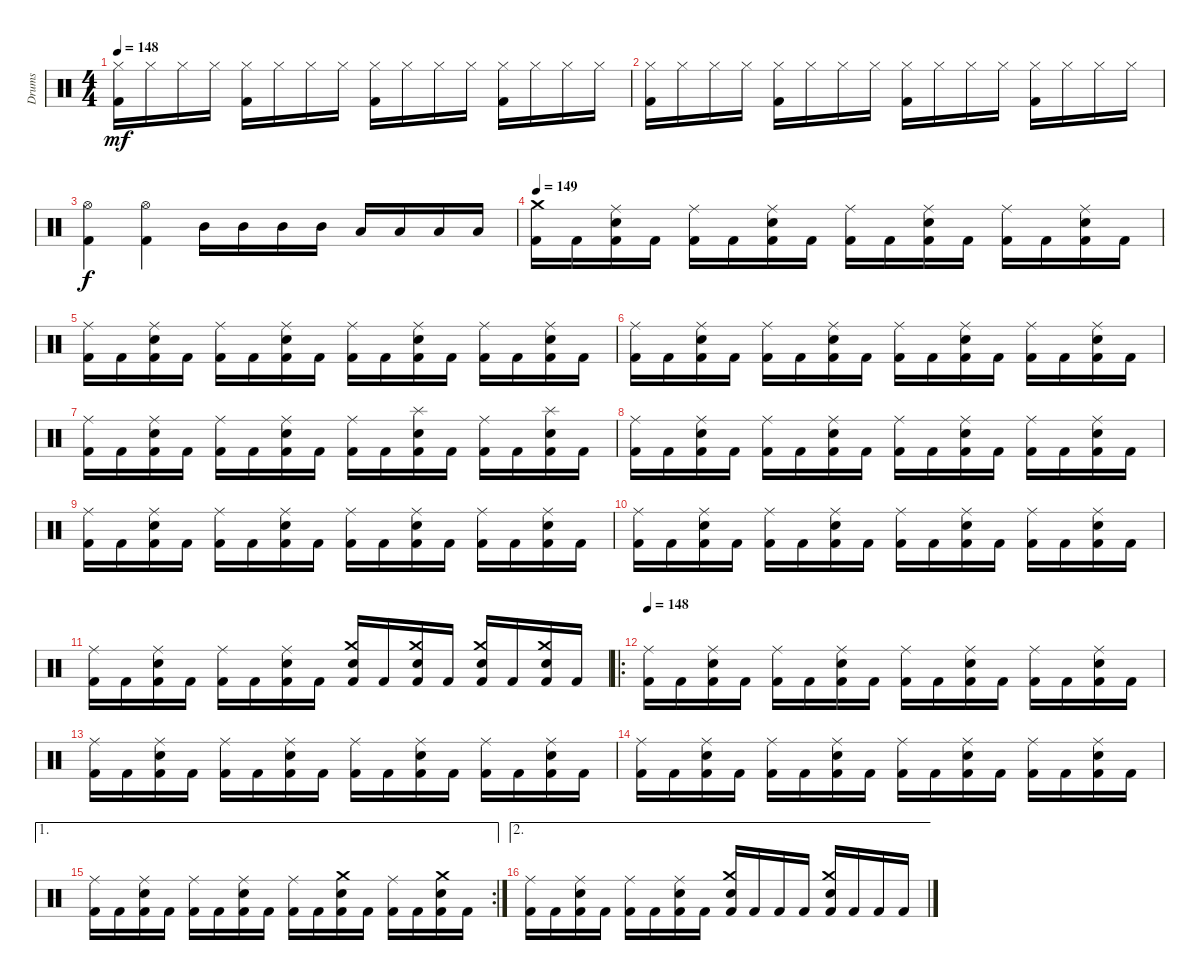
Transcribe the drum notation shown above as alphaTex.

\track ("Drums" "Drums") {instrument percussion}
\staff {score}
\articulation defaults
\ts (4 4)
\tempo 148
\clef neutral
\ks c
("Hi-Hat (closed)" "Kick (hit) 2").16{dy mf} "Hi-Hat (closed)".16 "Hi-Hat (closed)".16 "Hi-Hat (closed)".16 ("Hi-Hat (closed)" "Kick (hit) 2").16 "Hi-Hat (closed)".16 "Hi-Hat (closed)".16 "Hi-Hat (closed)".16 ("Hi-Hat (closed)" "Kick (hit) 2").16 "Hi-Hat (closed)".16 "Hi-Hat (closed)".16 "Hi-Hat (closed)".16 ("Hi-Hat (closed)" "Kick (hit) 2").16 "Hi-Hat (closed)".16 "Hi-Hat (closed)".16 "Hi-Hat (closed)".16 |
("Hi-Hat (closed)" "Kick (hit) 2").16 "Hi-Hat (closed)".16 "Hi-Hat (closed)".16 "Hi-Hat (closed)".16 ("Hi-Hat (closed)" "Kick (hit) 2").16 "Hi-Hat (closed)".16 "Hi-Hat (closed)".16 "Hi-Hat (closed)".16 ("Hi-Hat (closed)" "Kick (hit) 2").16 "Hi-Hat (closed)".16 "Hi-Hat (closed)".16 "Hi-Hat (closed)".16 ("Hi-Hat (closed)" "Kick (hit) 2").16 "Hi-Hat (closed)".16 "Hi-Hat (closed)".16 "Hi-Hat (closed)".16 |
("Hi-Hat (open)" "Kick (hit) 2").4{dy f} ("Hi-Hat (open)" "Kick (hit) 2").4 "Mid Tom (hit)".16 "Mid Tom (hit)".16 "Mid Tom (hit)".16 "Mid Tom (hit)".16 "Low Tom (hit)".16 "Low Tom (hit)".16 "Low Tom (hit)".16 "Low Tom (hit)".16 |
\tempo 149
("Crash medium (hit)" "Kick (hit) 2").16 "Kick (hit) 2".16 ("Ride (middle)" "Snare (hit) 2" "Kick (hit) 2").16 "Kick (hit) 2".16 ("Ride (middle)" "Kick (hit) 2").16 "Kick (hit) 2".16 ("Ride (middle)" "Snare (hit) 2" "Kick (hit) 2").16 "Kick (hit) 2".16 ("Ride (middle)" "Kick (hit) 2").16 "Kick (hit) 2".16 ("Ride (middle)" "Snare (hit) 2" "Kick (hit) 2").16 "Kick (hit) 2".16 ("Ride (middle)" "Kick (hit) 2").16 "Kick (hit) 2".16 ("Ride (middle)" "Snare (hit) 2" "Kick (hit) 2").16 "Kick (hit) 2".16 |
("Ride (middle)" "Kick (hit) 2").16 "Kick (hit) 2".16 ("Ride (middle)" "Snare (hit) 2" "Kick (hit) 2").16 "Kick (hit) 2".16 ("Ride (middle)" "Kick (hit) 2").16 "Kick (hit) 2".16 ("Ride (middle)" "Snare (hit) 2" "Kick (hit) 2").16 "Kick (hit) 2".16 ("Ride (middle)" "Kick (hit) 2").16 "Kick (hit) 2".16 ("Ride (middle)" "Snare (hit) 2" "Kick (hit) 2").16 "Kick (hit) 2".16 ("Ride (middle)" "Kick (hit) 2").16 "Kick (hit) 2".16 ("Ride (middle)" "Snare (hit) 2" "Kick (hit) 2").16 "Kick (hit) 2".16 |
("Ride (middle)" "Kick (hit) 2").16 "Kick (hit) 2".16 ("Ride (middle)" "Snare (hit) 2" "Kick (hit) 2").16 "Kick (hit) 2".16 ("Ride (middle)" "Kick (hit) 2").16 "Kick (hit) 2".16 ("Ride (middle)" "Snare (hit) 2" "Kick (hit) 2").16 "Kick (hit) 2".16 ("Ride (middle)" "Kick (hit) 2").16 "Kick (hit) 2".16 ("Ride (middle)" "Snare (hit) 2" "Kick (hit) 2").16 "Kick (hit) 2".16 ("Ride (middle)" "Kick (hit) 2").16 "Kick (hit) 2".16 ("Ride (middle)" "Snare (hit) 2" "Kick (hit) 2").16 "Kick (hit) 2".16 |
("Ride (middle)" "Kick (hit) 2").16 "Kick (hit) 2".16 ("Ride (middle)" "Snare (hit) 2" "Kick (hit) 2").16 "Kick (hit) 2".16 ("Ride (middle)" "Kick (hit) 2").16 "Kick (hit) 2".16 ("Ride (middle)" "Snare (hit) 2" "Kick (hit) 2").16 "Kick (hit) 2".16 ("Ride (middle)" "Kick (hit) 2").16 "Kick (hit) 2".16 ("Splash (hit)" "Snare (hit) 2" "Kick (hit) 2").16 "Kick (hit) 2".16 ("Ride (middle)" "Kick (hit) 2").16 "Kick (hit) 2".16 ("Splash (hit)" "Snare (hit) 2" "Kick (hit) 2").16 "Kick (hit) 2".16 |
("Ride (middle)" "Kick (hit) 2").16 "Kick (hit) 2".16 ("Ride (middle)" "Snare (hit) 2" "Kick (hit) 2").16 "Kick (hit) 2".16 ("Ride (middle)" "Kick (hit) 2").16 "Kick (hit) 2".16 ("Ride (middle)" "Snare (hit) 2" "Kick (hit) 2").16 "Kick (hit) 2".16 ("Ride (middle)" "Kick (hit) 2").16 "Kick (hit) 2".16 ("Ride (middle)" "Snare (hit) 2" "Kick (hit) 2").16 "Kick (hit) 2".16 ("Ride (middle)" "Kick (hit) 2").16 "Kick (hit) 2".16 ("Ride (middle)" "Snare (hit) 2" "Kick (hit) 2").16 "Kick (hit) 2".16 |
("Ride (middle)" "Kick (hit) 2").16 "Kick (hit) 2".16 ("Ride (middle)" "Snare (hit) 2" "Kick (hit) 2").16 "Kick (hit) 2".16 ("Ride (middle)" "Kick (hit) 2").16 "Kick (hit) 2".16 ("Ride (middle)" "Snare (hit) 2" "Kick (hit) 2").16 "Kick (hit) 2".16 ("Ride (middle)" "Kick (hit) 2").16 "Kick (hit) 2".16 ("Ride (middle)" "Snare (hit) 2" "Kick (hit) 2").16 "Kick (hit) 2".16 ("Ride (middle)" "Kick (hit) 2").16 "Kick (hit) 2".16 ("Ride (middle)" "Snare (hit) 2" "Kick (hit) 2").16 "Kick (hit) 2".16 |
("Ride (middle)" "Kick (hit) 2").16 "Kick (hit) 2".16 ("Ride (middle)" "Snare (hit) 2" "Kick (hit) 2").16 "Kick (hit) 2".16 ("Ride (middle)" "Kick (hit) 2").16 "Kick (hit) 2".16 ("Ride (middle)" "Snare (hit) 2" "Kick (hit) 2").16 "Kick (hit) 2".16 ("Ride (middle)" "Kick (hit) 2").16 "Kick (hit) 2".16 ("Ride (middle)" "Snare (hit) 2" "Kick (hit) 2").16 "Kick (hit) 2".16 ("Ride (middle)" "Kick (hit) 2").16 "Kick (hit) 2".16 ("Ride (middle)" "Snare (hit) 2" "Kick (hit) 2").16 "Kick (hit) 2".16 |
("Ride (middle)" "Kick (hit) 2").16 "Kick (hit) 2".16 ("Ride (middle)" "Snare (hit) 2" "Kick (hit) 2").16 "Kick (hit) 2".16 ("Ride (middle)" "Kick (hit) 2").16 "Kick (hit) 2".16 ("Ride (middle)" "Snare (hit) 2" "Kick (hit) 2").16 "Kick (hit) 2".16 ("Crash medium (hit)" "Snare (hit) 2" "Kick (hit) 2").16 "Kick (hit) 2".16 ("Crash medium (hit)" "Snare (hit) 2" "Kick (hit) 2").16 "Kick (hit) 2".16 ("Crash medium (hit)" "Snare (hit) 2" "Kick (hit) 2").16 "Kick (hit) 2".16 ("Crash medium (hit)" "Snare (hit) 2" "Kick (hit) 2").16 "Kick (hit) 2".16 |
\ro
\tempo 148
("Ride (middle)" "Kick (hit) 2").16 "Kick (hit) 2".16 ("Ride (middle)" "Snare (hit) 2" "Kick (hit) 2").16 "Kick (hit) 2".16 ("Ride (middle)" "Kick (hit) 2").16 "Kick (hit) 2".16 ("Ride (middle)" "Snare (hit) 2" "Kick (hit) 2").16 "Kick (hit) 2".16 ("Ride (middle)" "Kick (hit) 2").16 "Kick (hit) 2".16 ("Ride (middle)" "Snare (hit) 2" "Kick (hit) 2").16 "Kick (hit) 2".16 ("Ride (middle)" "Kick (hit) 2").16 "Kick (hit) 2".16 ("Ride (middle)" "Snare (hit) 2" "Kick (hit) 2").16 "Kick (hit) 2".16 |
("Ride (middle)" "Kick (hit) 2").16 "Kick (hit) 2".16 ("Ride (middle)" "Snare (hit) 2" "Kick (hit) 2").16 "Kick (hit) 2".16 ("Ride (middle)" "Kick (hit) 2").16 "Kick (hit) 2".16 ("Ride (middle)" "Snare (hit) 2" "Kick (hit) 2").16 "Kick (hit) 2".16 ("Ride (middle)" "Kick (hit) 2").16 "Kick (hit) 2".16 ("Ride (middle)" "Snare (hit) 2" "Kick (hit) 2").16 "Kick (hit) 2".16 ("Ride (middle)" "Kick (hit) 2").16 "Kick (hit) 2".16 ("Ride (middle)" "Snare (hit) 2" "Kick (hit) 2").16 "Kick (hit) 2".16 |
("Ride (middle)" "Kick (hit) 2").16 "Kick (hit) 2".16 ("Ride (middle)" "Snare (hit) 2" "Kick (hit) 2").16 "Kick (hit) 2".16 ("Ride (middle)" "Kick (hit) 2").16 "Kick (hit) 2".16 ("Ride (middle)" "Snare (hit) 2" "Kick (hit) 2").16 "Kick (hit) 2".16 ("Ride (middle)" "Kick (hit) 2").16 "Kick (hit) 2".16 ("Ride (middle)" "Snare (hit) 2" "Kick (hit) 2").16 "Kick (hit) 2".16 ("Ride (middle)" "Kick (hit) 2").16 "Kick (hit) 2".16 ("Ride (middle)" "Snare (hit) 2" "Kick (hit) 2").16 "Kick (hit) 2".16 |
\ae 1
\rc 2
("Ride (middle)" "Kick (hit) 2").16 "Kick (hit) 2".16 ("Ride (middle)" "Snare (hit) 2" "Kick (hit) 2").16 "Kick (hit) 2".16 ("Ride (middle)" "Kick (hit) 2").16 "Kick (hit) 2".16 ("Ride (middle)" "Snare (hit) 2" "Kick (hit) 2").16 "Kick (hit) 2".16 ("Ride (middle)" "Kick (hit) 2").16 "Kick (hit) 2".16 ("Crash medium (hit)" "Snare (hit) 2" "Kick (hit) 2").16 "Kick (hit) 2".16 ("Ride (middle)" "Kick (hit) 2").16 "Kick (hit) 2".16 ("Crash medium (hit)" "Snare (hit) 2" "Kick (hit) 2").16 "Kick (hit) 2".16 |
\ae 2
("Ride (middle)" "Kick (hit) 2").16 "Kick (hit) 2".16 ("Ride (middle)" "Snare (hit) 2" "Kick (hit) 2").16 "Kick (hit) 2".16 ("Ride (middle)" "Kick (hit) 2").16 "Kick (hit) 2".16 ("Ride (middle)" "Snare (hit) 2" "Kick (hit) 2").16 "Kick (hit) 2".16 ("Crash medium (hit)" "Snare (hit) 2" "Kick (hit) 2").16 "Kick (hit) 2".16 "Kick (hit) 2".16 "Kick (hit) 2".16 ("Crash medium (hit)" "Snare (hit) 2" "Kick (hit) 2").16 "Kick (hit) 2".16 "Kick (hit) 2".16 "Kick (hit) 2".16
